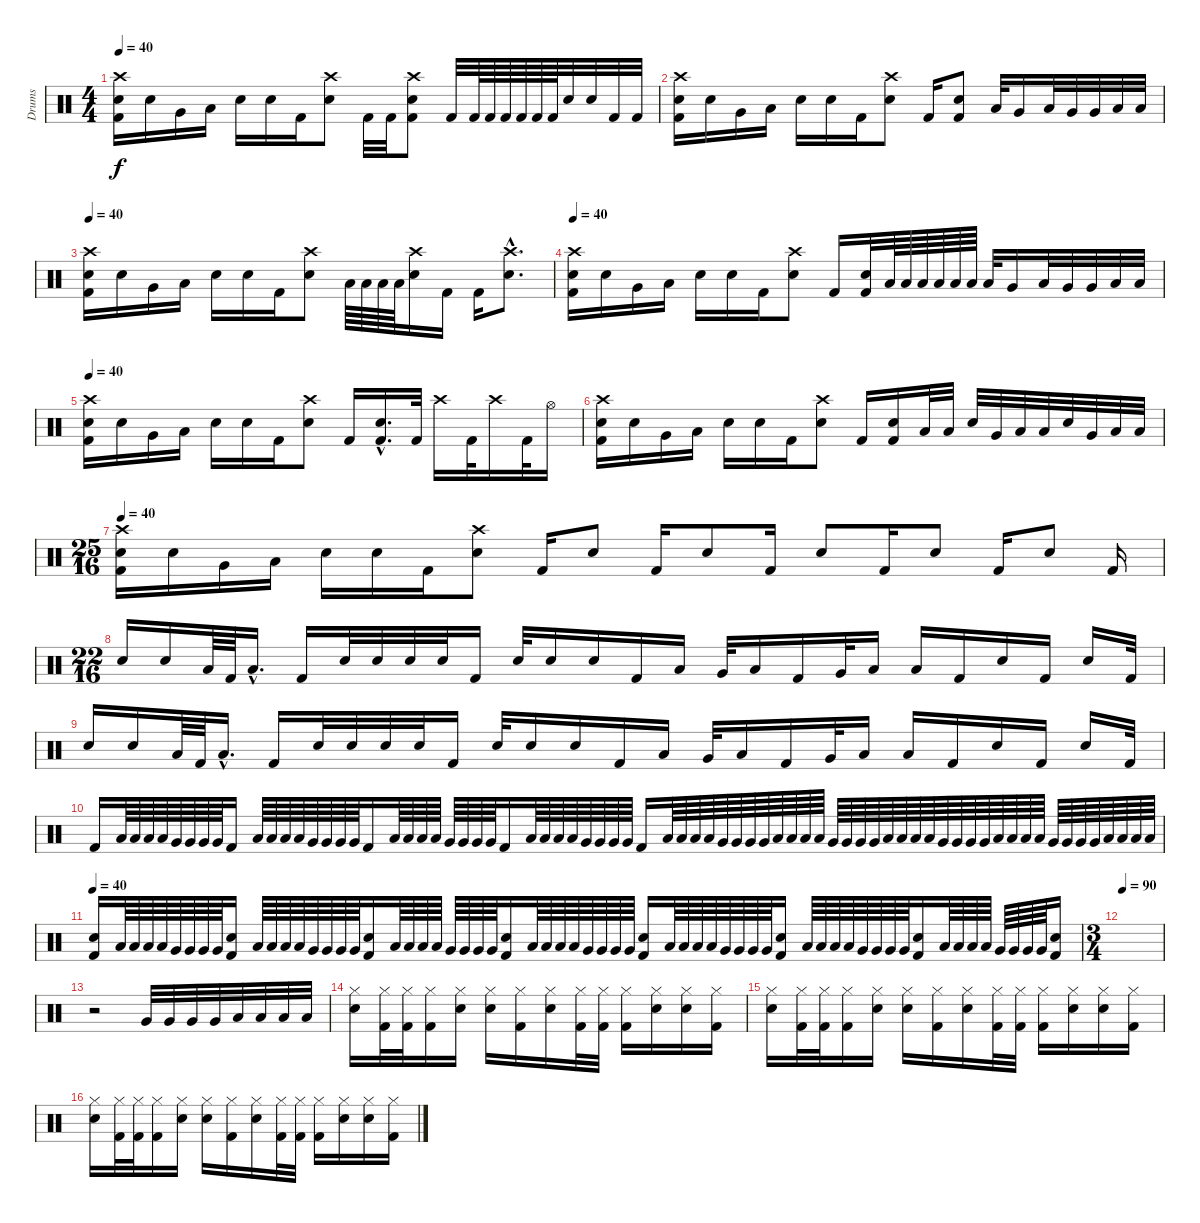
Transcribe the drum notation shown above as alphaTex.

\track ("Drums" "Drums") {instrument percussion}
\staff {score}
\articulation defaults
\ts (4 4)
\tempo 40
\clef neutral
\ks c
("Crash high (hit)" "Snare (hit) 2" "Kick (hit) 2").16{dy f} "Snare (hit) 2".16 "Very Low Tom (hit)".16 "Low Floor Tom (hit)".16 "Snare (hit) 2".16 "Snare (hit) 2".16 "Kick (hit) 2".16 ("Crash high (hit)" "Snare (hit) 2").8 "Kick (hit) 2".32 "Kick (hit) 2".32 ("Crash high (hit)" "Snare (hit) 2" "Kick (hit) 2").8 "Kick (hit) 2".32 "Kick (hit) 2".64 "Kick (hit) 2".64 "Kick (hit) 2".64 "Kick (hit) 2".64 "Kick (hit) 2".64 "Kick (hit) 2".64 "Electric Snare (hit)".32 "Snare (hit) 2".32 "Kick (hit) 2".32 "Kick (hit) 2".32 |
("Crash high (hit)" "Snare (hit) 2" "Kick (hit) 2").16 "Snare (hit) 2".16 "Very Low Tom (hit)".16 "Low Floor Tom (hit)".16 "Snare (hit) 2".16 "Snare (hit) 2".16 "Kick (hit) 2".16 ("Crash high (hit)" "Snare (hit) 2").8 "Kick (hit) 2".16 ("Snare (hit) 2" "Kick (hit) 2").8 "Low Floor Tom (hit)".32 "Very Low Tom (hit)".16 "Low Floor Tom (hit)".32 "Very Low Tom (hit)".32 "Very Low Tom (hit)".32 "Low Floor Tom (hit)".32 "Low Floor Tom (hit)".32 |
\tempo 40
("Crash high (hit)" "Snare (hit) 2" "Kick (hit) 2").16 "Snare (hit) 2".16 "Very Low Tom (hit)".16 "Low Floor Tom (hit)".16 "Snare (hit) 2".16 "Snare (hit) 2".16 "Kick (hit) 2".16 ("Crash high (hit)" "Snare (hit) 2").8 "Low Floor Tom (hit)".64 "Low Floor Tom (hit)".64 "Low Floor Tom (hit)".64 "Low Floor Tom (hit)".64 ("Crash high (hit)" "Snare (hit) 2").16 "Kick (hit) 2".16 "Kick (hit) 2".16 ("Crash high (hit)"{hac} "Snare (hit) 2"{hac}).8{d} |
\tempo 40
("Crash high (hit)" "Snare (hit) 2" "Kick (hit) 2").16 "Snare (hit) 2".16 "Very Low Tom (hit)".16 "Low Floor Tom (hit)".16 "Snare (hit) 2".16 "Snare (hit) 2".16 "Kick (hit) 2".16 ("Crash high (hit)" "Snare (hit) 2").8 "Kick (hit) 2".16 ("Snare (hit) 2" "Kick (hit) 2").32 "Low Floor Tom (hit)".64 "Low Floor Tom (hit)".64 "Low Floor Tom (hit)".64 "Low Floor Tom (hit)".64 "Low Floor Tom (hit)".64 "Low Floor Tom (hit)".64 "Low Floor Tom (hit)".32 "Very Low Tom (hit)".16 "Low Floor Tom (hit)".32 "Very Low Tom (hit)".32 "Very Low Tom (hit)".32 "Low Floor Tom (hit)".32 "Low Floor Tom (hit)".32 |
\tempo 40
("Crash high (hit)" "Snare (hit) 2" "Kick (hit) 2").16 "Snare (hit) 2".16 "Very Low Tom (hit)".16 "Low Floor Tom (hit)".16 "Snare (hit) 2".16 "Snare (hit) 2".16 "Kick (hit) 2".16 ("Crash high (hit)" "Snare (hit) 2").8 "Kick (hit) 2".16 ("Snare (hit) 2"{hac} "Kick (hit) 2"{hac}).16{d} "Kick (hit) 2".32 "Crash high (hit)".16 "Kick (hit) 2".32 "Crash high (hit)".16 "Kick (hit) 2".32 "Hi-Hat (open)".16 |
("Crash high (hit)" "Snare (hit) 2" "Kick (hit) 2").16 "Snare (hit) 2".16 "Very Low Tom (hit)".16 "Low Floor Tom (hit)".16 "Snare (hit) 2".16 "Snare (hit) 2".16 "Kick (hit) 2".16 ("Crash high (hit)" "Snare (hit) 2").8 "Kick (hit) 2".16 ("Snare (hit) 2" "Kick (hit) 2").16 "Low Floor Tom (hit)".32 "Low Floor Tom (hit)".32 "Snare (hit) 2".32 "Very Low Tom (hit)".32 "Low Floor Tom (hit)".32 "Low Floor Tom (hit)".32 "Snare (hit) 2".32 "Very Low Tom (hit)".32 "Low Floor Tom (hit)".32 "Low Floor Tom (hit)".32 |
\ts (25 16)
\tempo 40
("Crash high (hit)" "Snare (hit) 2" "Kick (hit) 2").16 "Snare (hit) 2".16 "Very Low Tom (hit)".16 "Low Floor Tom (hit)".16 "Snare (hit) 2".16 "Snare (hit) 2".16 "Kick (hit) 2".16 ("Crash high (hit)" "Snare (hit) 2").8 "Kick (hit) 2".16 "Snare (hit) 2".8 "Kick (hit) 2".16 "Snare (hit) 2".8 "Kick (hit) 2".16 "Snare (hit) 2".8 "Kick (hit) 2".16 "Snare (hit) 2".8 "Kick (hit) 2".16 "Snare (hit) 2".8 "Kick (hit) 2".16 |
\ts (22 16)
"Snare (hit) 2".16 "Electric Snare (hit)".16 "Low Floor Tom (hit)".64 "Kick (hit) 2".64 "Low Floor Tom (hit)"{hac}.16{d} "Kick (hit) 2".16 "Electric Snare (hit)".32 "Electric Snare (hit)".32 "Snare (hit) 2".32 "Snare (hit) 2".32 "Kick (hit) 2".16 "Electric Snare (hit)".32 "Snare (hit) 2".16 "Electric Snare (hit)".16 "Kick (hit) 2".16 "Low Floor Tom (hit)".16 "Very Low Tom (hit)".32 "Low Floor Tom (hit)".16 "Kick (hit) 2".16 "Very Low Tom (hit)".32 "Low Floor Tom (hit)".16 "Low Floor Tom (hit)".16 "Kick (hit) 2".16 "Snare (hit) 2".16 "Kick (hit) 2".16 "Snare (hit) 2".16 "Kick (hit) 2".32 |
"Snare (hit) 2".16 "Electric Snare (hit)".16 "Low Floor Tom (hit)".64 "Kick (hit) 2".64 "Low Floor Tom (hit)"{hac}.16{d} "Kick (hit) 2".16 "Electric Snare (hit)".32 "Electric Snare (hit)".32 "Snare (hit) 2".32 "Snare (hit) 2".32 "Kick (hit) 2".16 "Electric Snare (hit)".32 "Snare (hit) 2".16 "Electric Snare (hit)".16 "Kick (hit) 2".16 "Low Floor Tom (hit)".16 "Very Low Tom (hit)".32 "Low Floor Tom (hit)".16 "Kick (hit) 2".16 "Very Low Tom (hit)".32 "Low Floor Tom (hit)".16 "Low Floor Tom (hit)".16 "Kick (hit) 2".16 "Snare (hit) 2".16 "Kick (hit) 2".16 "Snare (hit) 2".16 "Kick (hit) 2".32 |
"Kick (hit) 2".16 "Low Floor Tom (hit)".64 "Low Floor Tom (hit)".64 "Low Floor Tom (hit)".64 "Low Floor Tom (hit)".64 "Very Low Tom (hit)".64 "Very Low Tom (hit)".64 "Very Low Tom (hit)".64 "Very Low Tom (hit)".64 "Kick (hit) 2".16 "Low Floor Tom (hit)".64 "Low Floor Tom (hit)".64 "Low Floor Tom (hit)".64 "Low Floor Tom (hit)".64 "Very Low Tom (hit)".64 "Very Low Tom (hit)".64 "Very Low Tom (hit)".64 "Very Low Tom (hit)".64 "Kick (hit) 2".16 "Low Floor Tom (hit)".64 "Low Floor Tom (hit)".64 "Low Floor Tom (hit)".64 "Low Floor Tom (hit)".64 "Very Low Tom (hit)".64 "Very Low Tom (hit)".64 "Very Low Tom (hit)".64 "Very Low Tom (hit)".64 "Kick (hit) 2".16 "Low Floor Tom (hit)".64 "Low Floor Tom (hit)".64 "Low Floor Tom (hit)".64 "Low Floor Tom (hit)".64 "Very Low Tom (hit)".64 "Very Low Tom (hit)".64 "Very Low Tom (hit)".64 "Very Low Tom (hit)".64 "Kick (hit) 2".16 "Low Floor Tom (hit)".64 "Low Floor Tom (hit)".64 "Low Floor Tom (hit)".64 "Low Floor Tom (hit)".64 "Very Low Tom (hit)".64 "Very Low Tom (hit)".64 "Very Low Tom (hit)".64 "Very Low Tom (hit)".64 "Low Floor Tom (hit)".64 "Low Floor Tom (hit)".64 "Low Floor Tom (hit)".64 "Low Floor Tom (hit)".64 "Very Low Tom (hit)".64 "Very Low Tom (hit)".64 "Very Low Tom (hit)".64 "Very Low Tom (hit)".64 "Low Floor Tom (hit)".64 "Low Floor Tom (hit)".64 "Low Floor Tom (hit)".64 "Low Floor Tom (hit)".64 "Very Low Tom (hit)".64 "Very Low Tom (hit)".64 "Very Low Tom (hit)".64 "Very Low Tom (hit)".64 "Low Floor Tom (hit)".64 "Low Floor Tom (hit)".64 "Low Floor Tom (hit)".64 "Low Floor Tom (hit)".64 "Very Low Tom (hit)".64 "Very Low Tom (hit)".64 "Very Low Tom (hit)".64 "Very Low Tom (hit)".64 "Low Floor Tom (hit)".64 "Low Floor Tom (hit)".64 "Low Floor Tom (hit)".64 "Low Floor Tom (hit)".64 |
\tempo 40
("Snare (hit) 2" "Kick (hit) 2").16 "Low Floor Tom (hit)".64 "Low Floor Tom (hit)".64 "Low Floor Tom (hit)".64 "Low Floor Tom (hit)".64 "Very Low Tom (hit)".64 "Very Low Tom (hit)".64 "Very Low Tom (hit)".64 "Very Low Tom (hit)".64 ("Snare (hit) 2" "Kick (hit) 2").16 "Low Floor Tom (hit)".64 "Low Floor Tom (hit)".64 "Low Floor Tom (hit)".64 "Low Floor Tom (hit)".64 "Very Low Tom (hit)".64 "Very Low Tom (hit)".64 "Very Low Tom (hit)".64 "Very Low Tom (hit)".64 ("Snare (hit) 2" "Kick (hit) 2").16 "Low Floor Tom (hit)".64 "Low Floor Tom (hit)".64 "Low Floor Tom (hit)".64 "Low Floor Tom (hit)".64 "Very Low Tom (hit)".64 "Very Low Tom (hit)".64 "Very Low Tom (hit)".64 "Very Low Tom (hit)".64 ("Snare (hit) 2" "Kick (hit) 2").16 "Low Floor Tom (hit)".64 "Low Floor Tom (hit)".64 "Low Floor Tom (hit)".64 "Low Floor Tom (hit)".64 "Very Low Tom (hit)".64 "Very Low Tom (hit)".64 "Very Low Tom (hit)".64 "Very Low Tom (hit)".64 ("Snare (hit) 2" "Kick (hit) 2").16 "Low Floor Tom (hit)".64 "Low Floor Tom (hit)".64 "Low Floor Tom (hit)".64 "Low Floor Tom (hit)".64 "Very Low Tom (hit)".64 "Very Low Tom (hit)".64 "Very Low Tom (hit)".64 "Very Low Tom (hit)".64 ("Snare (hit) 2" "Kick (hit) 2").16 "Low Floor Tom (hit)".64 "Low Floor Tom (hit)".64 "Low Floor Tom (hit)".64 "Low Floor Tom (hit)".64 "Very Low Tom (hit)".64 "Very Low Tom (hit)".64 "Very Low Tom (hit)".64 "Very Low Tom (hit)".64 ("Snare (hit) 2" "Kick (hit) 2").16 "Low Floor Tom (hit)".64 "Low Floor Tom (hit)".64 "Low Floor Tom (hit)".64 "Low Floor Tom (hit)".64 "Very Low Tom (hit)".64 "Very Low Tom (hit)".64 "Very Low Tom (hit)".64 "Very Low Tom (hit)".64 ("Snare (hit) 2" "Kick (hit) 2").16 |
\ts (3 4)
\tempo 90
|
r.2 "Very Low Tom (hit)".32 "Very Low Tom (hit)".32 "Very Low Tom (hit)".32 "Very Low Tom (hit)".32 "Low Floor Tom (hit)".32 "Low Floor Tom (hit)".32 "Low Floor Tom (hit)".32 "Low Floor Tom (hit)".32 |
("Hi-Hat (closed)" "Snare (hit) 2").16 ("Hi-Hat (closed)" "Kick (hit) 2").32 ("Hi-Hat (closed)" "Kick (hit) 2").32 ("Hi-Hat (closed)" "Kick (hit) 2").16 ("Hi-Hat (closed)" "Electric Snare (hit)").16 ("Hi-Hat (closed)" "Snare (hit) 2").16 ("Hi-Hat (closed)" "Kick (hit) 2").16 ("Hi-Hat (closed)" "Snare (hit) 2").16 ("Hi-Hat (closed)" "Kick (hit) 2").32 ("Hi-Hat (closed)" "Kick (hit) 2").32 ("Hi-Hat (closed)" "Kick (hit) 2").16 ("Hi-Hat (closed)" "Electric Snare (hit)").16 ("Hi-Hat (closed)" "Snare (hit) 2").16 ("Hi-Hat (closed)" "Kick (hit) 2").16 |
("Hi-Hat (closed)" "Snare (hit) 2").16 ("Hi-Hat (closed)" "Kick (hit) 2").32 ("Hi-Hat (closed)" "Kick (hit) 2").32 ("Hi-Hat (closed)" "Kick (hit) 2").16 ("Hi-Hat (closed)" "Electric Snare (hit)").16 ("Hi-Hat (closed)" "Snare (hit) 2").16 ("Hi-Hat (closed)" "Kick (hit) 2").16 ("Hi-Hat (closed)" "Snare (hit) 2").16 ("Hi-Hat (closed)" "Kick (hit) 2").32 ("Hi-Hat (closed)" "Kick (hit) 2").32 ("Hi-Hat (closed)" "Kick (hit) 2").16 ("Hi-Hat (closed)" "Electric Snare (hit)").16 ("Hi-Hat (closed)" "Snare (hit) 2").16 ("Hi-Hat (closed)" "Kick (hit) 2").16 |
("Hi-Hat (closed)" "Snare (hit) 2").16 ("Hi-Hat (closed)" "Kick (hit) 2").32 ("Hi-Hat (closed)" "Kick (hit) 2").32 ("Hi-Hat (closed)" "Kick (hit) 2").16 ("Hi-Hat (closed)" "Electric Snare (hit)").16 ("Hi-Hat (closed)" "Snare (hit) 2").16 ("Hi-Hat (closed)" "Kick (hit) 2").16 ("Hi-Hat (closed)" "Snare (hit) 2").16 ("Hi-Hat (closed)" "Kick (hit) 2").32 ("Hi-Hat (closed)" "Kick (hit) 2").32 ("Hi-Hat (closed)" "Kick (hit) 2").16 ("Hi-Hat (closed)" "Electric Snare (hit)").16 ("Hi-Hat (closed)" "Snare (hit) 2").16 ("Hi-Hat (closed)" "Kick (hit) 2").16
